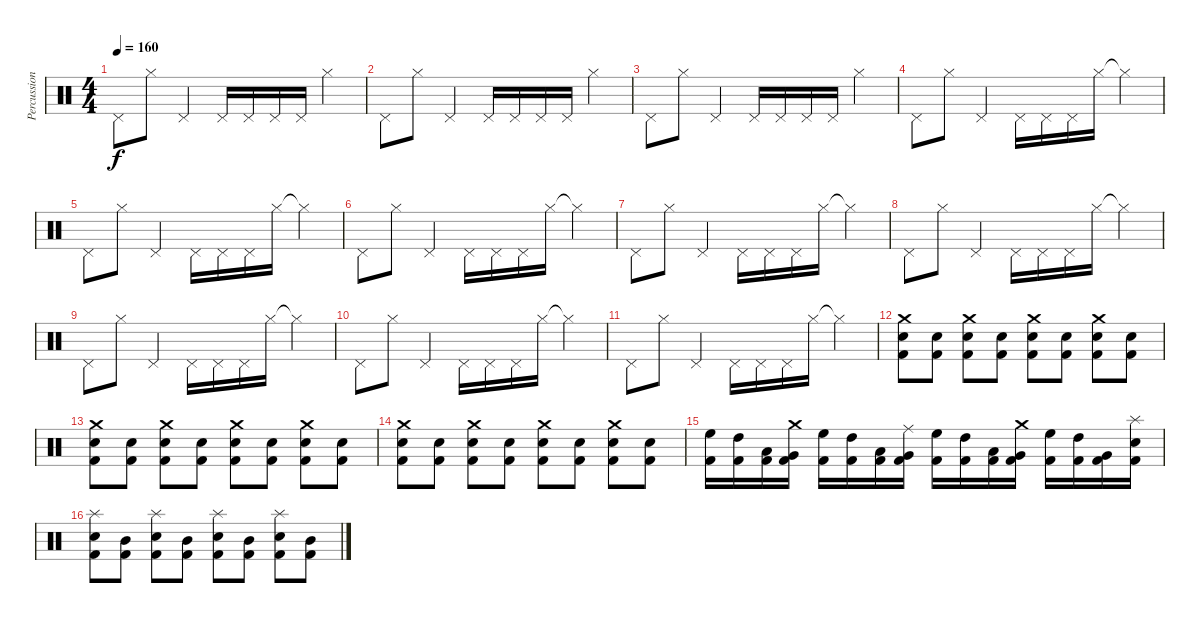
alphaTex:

\track ("Percussion" "Percussion") {instrument percussion}
\staff {score}
\articulation defaults
\ts (4 4)
\tempo 160
\clef neutral
\ks c "Pedal Hi-Hat (hit)".8{dy f} "Hi-Hat (closed)".8 "Pedal Hi-Hat (hit)".4 "Pedal Hi-Hat (hit)".16 "Pedal Hi-Hat (hit)".16 "Pedal Hi-Hat (hit)".16 "Pedal Hi-Hat (hit)".16 "Hi-Hat (closed)".4
|
"Pedal Hi-Hat (hit)".8 "Hi-Hat (closed)".8 "Pedal Hi-Hat (hit)".4 "Pedal Hi-Hat (hit)".16 "Pedal Hi-Hat (hit)".16 "Pedal Hi-Hat (hit)".16 "Pedal Hi-Hat (hit)".16 "Hi-Hat (closed)".4 |
"Pedal Hi-Hat (hit)".8 "Hi-Hat (closed)".8 "Pedal Hi-Hat (hit)".4 "Pedal Hi-Hat (hit)".16 "Pedal Hi-Hat (hit)".16 "Pedal Hi-Hat (hit)".16 "Pedal Hi-Hat (hit)".16 "Hi-Hat (closed)".4 |
"Pedal Hi-Hat (hit)".8 "Hi-Hat (closed)".8 "Pedal Hi-Hat (hit)".4 "Pedal Hi-Hat (hit)".16 "Pedal Hi-Hat (hit)".16 "Pedal Hi-Hat (hit)".16 "Hi-Hat (closed)".16 "Hi-Hat (closed)"{t}.4 |
"Pedal Hi-Hat (hit)".8 "Hi-Hat (closed)".8 "Pedal Hi-Hat (hit)".4 "Pedal Hi-Hat (hit)".16 "Pedal Hi-Hat (hit)".16 "Pedal Hi-Hat (hit)".16 "Hi-Hat (closed)".16 "Hi-Hat (closed)"{t}.4 |
"Pedal Hi-Hat (hit)".8 "Hi-Hat (closed)".8 "Pedal Hi-Hat (hit)".4 "Pedal Hi-Hat (hit)".16 "Pedal Hi-Hat (hit)".16 "Pedal Hi-Hat (hit)".16 "Hi-Hat (closed)".16 "Hi-Hat (closed)"{t}.4 |
"Pedal Hi-Hat (hit)".8 "Hi-Hat (closed)".8 "Pedal Hi-Hat (hit)".4 "Pedal Hi-Hat (hit)".16 "Pedal Hi-Hat (hit)".16 "Pedal Hi-Hat (hit)".16 "Hi-Hat (closed)".16 "Hi-Hat (closed)"{t}.4 |
"Pedal Hi-Hat (hit)".8 "Hi-Hat (closed)".8 "Pedal Hi-Hat (hit)".4 "Pedal Hi-Hat (hit)".16 "Pedal Hi-Hat (hit)".16 "Pedal Hi-Hat (hit)".16 "Hi-Hat (closed)".16 "Hi-Hat (closed)"{t}.4 |
"Pedal Hi-Hat (hit)".8 "Hi-Hat (closed)".8 "Pedal Hi-Hat (hit)".4 "Pedal Hi-Hat (hit)".16 "Pedal Hi-Hat (hit)".16 "Pedal Hi-Hat (hit)".16 "Hi-Hat (closed)".16 "Hi-Hat (closed)"{t}.4 |
"Pedal Hi-Hat (hit)".8 "Hi-Hat (closed)".8 "Pedal Hi-Hat (hit)".4 "Pedal Hi-Hat (hit)".16 "Pedal Hi-Hat (hit)".16 "Pedal Hi-Hat (hit)".16 "Hi-Hat (closed)".16 "Hi-Hat (closed)"{t}.4 |
"Pedal Hi-Hat (hit)".8 "Hi-Hat (closed)".8 "Pedal Hi-Hat (hit)".4 "Pedal Hi-Hat (hit)".16 "Pedal Hi-Hat (hit)".16 "Pedal Hi-Hat (hit)".16 "Hi-Hat (closed)".16 "Hi-Hat (closed)"{t}.4 |
("Kick (hit) 2" "Snare (hit) 2" "Crash medium (hit)").8 ("Kick (hit) 2" "Snare (hit) 2").8 ("Kick (hit) 2" "Snare (hit) 2" "Crash medium (hit)").8 ("Kick (hit) 2" "Snare (hit) 2").8 ("Kick (hit) 2" "Snare (hit) 2" "Crash medium (hit)").8 ("Kick (hit) 2" "Snare (hit) 2").8 ("Kick (hit) 2" "Snare (hit) 2" "Crash medium (hit)").8 ("Kick (hit) 2" "Snare (hit) 2").8 |
("Kick (hit) 2" "Snare (hit) 2" "Crash medium (hit)").8 ("Kick (hit) 2" "Snare (hit) 2").8 ("Kick (hit) 2" "Snare (hit) 2" "Crash medium (hit)").8 ("Kick (hit) 2" "Snare (hit) 2").8 ("Kick (hit) 2" "Snare (hit) 2" "Crash medium (hit)").8 ("Kick (hit) 2" "Snare (hit) 2").8 ("Kick (hit) 2" "Snare (hit) 2" "Crash medium (hit)").8 ("Kick (hit) 2" "Snare (hit) 2").8 |
("Kick (hit) 2" "Snare (hit) 2" "Crash medium (hit)").8 ("Kick (hit) 2" "Snare (hit) 2").8 ("Kick (hit) 2" "Snare (hit) 2" "Crash medium (hit)").8 ("Kick (hit) 2" "Snare (hit) 2").8 ("Kick (hit) 2" "Snare (hit) 2" "Crash medium (hit)").8 ("Kick (hit) 2" "Snare (hit) 2").8 ("Kick (hit) 2" "Snare (hit) 2" "Crash medium (hit)").8 ("Kick (hit) 2" "Snare (hit) 2").8 |
("Kick (hit) 2" "High Floor Tom (hit)").16 ("Kick (hit) 2" "High Tom (hit)").16 ("Kick (hit) 2" "Low Tom (hit)").16 ("Kick (hit) 2" "Very Low Tom (hit)" "Crash medium (hit)").16 ("Kick (hit) 2" "High Floor Tom (hit)").16 ("Kick (hit) 2" "High Tom (hit)").16 ("Kick (hit) 2" "Low Tom (hit)").16 ("Kick (hit) 2" "Very Low Tom (hit)" "Ride (middle)").16 ("Kick (hit) 2" "High Floor Tom (hit)").16 ("Kick (hit) 2" "High Tom (hit)").16 ("Kick (hit) 2" "Low Tom (hit)").16 ("Kick (hit) 2" "Very Low Tom (hit)" "Crash medium (hit)").16 ("Kick (hit) 2" "High Floor Tom (hit)").16 ("Kick (hit) 2" "High Tom (hit)").16 ("Kick (hit) 2" "Very Low Tom (hit)").16 ("Kick (hit) 2" "Snare (hit) 2" "Splash (hit)").16 |
("Kick (hit) 2" "Snare (hit) 2" "Splash (hit)").8 ("Kick (hit) 2" "Mid Tom (hit)").8 ("Kick (hit) 2" "Snare (hit) 2" "Splash (hit)").8 ("Kick (hit) 2" "Mid Tom (hit)").8 ("Kick (hit) 2" "Snare (hit) 2" "Splash (hit)").8 ("Kick (hit) 2" "Mid Tom (hit)").8 ("Kick (hit) 2" "Snare (hit) 2" "Splash (hit)").8 ("Kick (hit) 2" "Mid Tom (hit)").8
